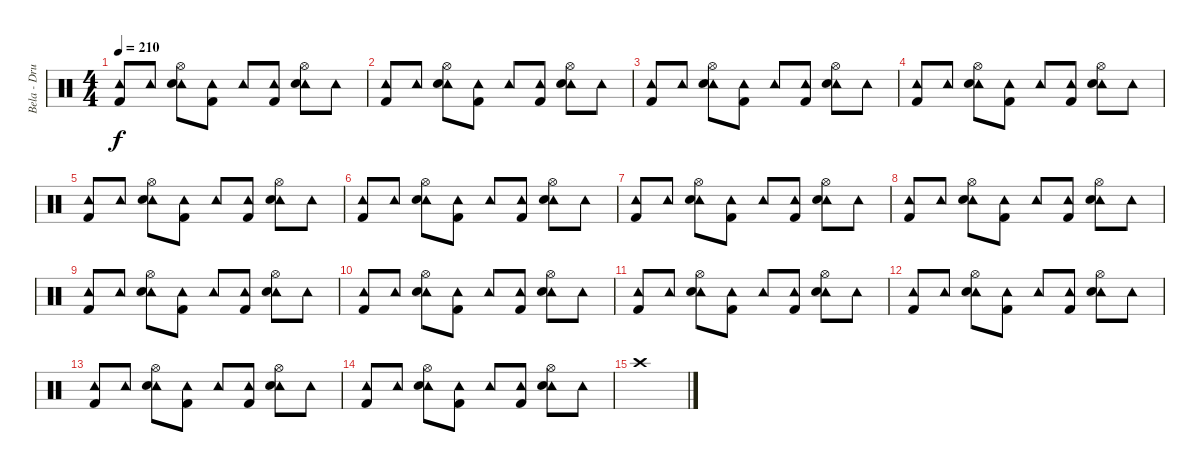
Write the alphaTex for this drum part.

\track ("Bela - Drums" "Bela - Dru") {instrument percussion}
\staff {score}
\articulation defaults
\ts (4 4)
\tempo 210
\clef neutral
\ks c
("Tambourine (hit)" "Kick (hit) 2").8{dy f} "Tambourine (hit)".8 ("Tambourine (hit)" "Electric Snare (hit)" "Hi-Hat (open)").8 ("Tambourine (hit)" "Kick (hit) 2").8 "Tambourine (hit)".8 ("Tambourine (hit)" "Kick (hit) 2").8 ("Tambourine (hit)" "Electric Snare (hit)" "Hi-Hat (open)").8 "Tambourine (hit)".8 |
("Tambourine (hit)" "Kick (hit) 2").8 "Tambourine (hit)".8 ("Tambourine (hit)" "Electric Snare (hit)" "Hi-Hat (open)").8 ("Tambourine (hit)" "Kick (hit) 2").8 "Tambourine (hit)".8 ("Tambourine (hit)" "Kick (hit) 2").8 ("Tambourine (hit)" "Electric Snare (hit)" "Hi-Hat (open)").8 "Tambourine (hit)".8 |
("Tambourine (hit)" "Kick (hit) 2").8 "Tambourine (hit)".8 ("Tambourine (hit)" "Electric Snare (hit)" "Hi-Hat (open)").8 ("Tambourine (hit)" "Kick (hit) 2").8 "Tambourine (hit)".8 ("Tambourine (hit)" "Kick (hit) 2").8 ("Tambourine (hit)" "Electric Snare (hit)" "Hi-Hat (open)").8 "Tambourine (hit)".8 |
("Tambourine (hit)" "Kick (hit) 2").8 "Tambourine (hit)".8 ("Tambourine (hit)" "Electric Snare (hit)" "Hi-Hat (open)").8 ("Tambourine (hit)" "Kick (hit) 2").8 "Tambourine (hit)".8 ("Tambourine (hit)" "Kick (hit) 2").8 ("Tambourine (hit)" "Electric Snare (hit)" "Hi-Hat (open)").8 "Tambourine (hit)".8 |
("Tambourine (hit)" "Kick (hit) 2").8 "Tambourine (hit)".8 ("Tambourine (hit)" "Electric Snare (hit)" "Hi-Hat (open)").8 ("Tambourine (hit)" "Kick (hit) 2").8 "Tambourine (hit)".8 ("Tambourine (hit)" "Kick (hit) 2").8 ("Tambourine (hit)" "Electric Snare (hit)" "Hi-Hat (open)").8 "Tambourine (hit)".8 |
("Tambourine (hit)" "Kick (hit) 2").8 "Tambourine (hit)".8 ("Tambourine (hit)" "Electric Snare (hit)" "Hi-Hat (open)").8 ("Tambourine (hit)" "Kick (hit) 2").8 "Tambourine (hit)".8 ("Tambourine (hit)" "Kick (hit) 2").8 ("Tambourine (hit)" "Electric Snare (hit)" "Hi-Hat (open)").8 "Tambourine (hit)".8 |
("Tambourine (hit)" "Kick (hit) 2").8 "Tambourine (hit)".8 ("Tambourine (hit)" "Electric Snare (hit)" "Hi-Hat (open)").8 ("Tambourine (hit)" "Kick (hit) 2").8 "Tambourine (hit)".8 ("Tambourine (hit)" "Kick (hit) 2").8 ("Tambourine (hit)" "Electric Snare (hit)" "Hi-Hat (open)").8 "Tambourine (hit)".8 |
("Tambourine (hit)" "Kick (hit) 2").8 "Tambourine (hit)".8 ("Tambourine (hit)" "Electric Snare (hit)" "Hi-Hat (open)").8 ("Tambourine (hit)" "Kick (hit) 2").8 "Tambourine (hit)".8 ("Tambourine (hit)" "Kick (hit) 2").8 ("Tambourine (hit)" "Electric Snare (hit)" "Hi-Hat (open)").8 "Tambourine (hit)".8 |
("Tambourine (hit)" "Kick (hit) 2").8 "Tambourine (hit)".8 ("Tambourine (hit)" "Electric Snare (hit)" "Hi-Hat (open)").8 ("Tambourine (hit)" "Kick (hit) 2").8 "Tambourine (hit)".8 ("Tambourine (hit)" "Kick (hit) 2").8 ("Tambourine (hit)" "Electric Snare (hit)" "Hi-Hat (open)").8 "Tambourine (hit)".8 |
("Tambourine (hit)" "Kick (hit) 2").8 "Tambourine (hit)".8 ("Tambourine (hit)" "Electric Snare (hit)" "Hi-Hat (open)").8 ("Tambourine (hit)" "Kick (hit) 2").8 "Tambourine (hit)".8 ("Tambourine (hit)" "Kick (hit) 2").8 ("Tambourine (hit)" "Electric Snare (hit)" "Hi-Hat (open)").8 "Tambourine (hit)".8 |
("Tambourine (hit)" "Kick (hit) 2").8 "Tambourine (hit)".8 ("Tambourine (hit)" "Electric Snare (hit)" "Hi-Hat (open)").8 ("Tambourine (hit)" "Kick (hit) 2").8 "Tambourine (hit)".8 ("Tambourine (hit)" "Kick (hit) 2").8 ("Tambourine (hit)" "Electric Snare (hit)" "Hi-Hat (open)").8 "Tambourine (hit)".8 |
("Tambourine (hit)" "Kick (hit) 2").8 "Tambourine (hit)".8 ("Tambourine (hit)" "Electric Snare (hit)" "Hi-Hat (open)").8 ("Tambourine (hit)" "Kick (hit) 2").8 "Tambourine (hit)".8 ("Tambourine (hit)" "Kick (hit) 2").8 ("Tambourine (hit)" "Electric Snare (hit)" "Hi-Hat (open)").8 "Tambourine (hit)".8 |
("Tambourine (hit)" "Kick (hit) 2").8 "Tambourine (hit)".8 ("Tambourine (hit)" "Electric Snare (hit)" "Hi-Hat (open)").8 ("Tambourine (hit)" "Kick (hit) 2").8 "Tambourine (hit)".8 ("Tambourine (hit)" "Kick (hit) 2").8 ("Tambourine (hit)" "Electric Snare (hit)" "Hi-Hat (open)").8 "Tambourine (hit)".8 |
("Tambourine (hit)" "Kick (hit) 2").8 "Tambourine (hit)".8 ("Tambourine (hit)" "Electric Snare (hit)" "Hi-Hat (open)").8 ("Tambourine (hit)" "Kick (hit) 2").8 "Tambourine (hit)".8 ("Tambourine (hit)" "Kick (hit) 2").8 ("Tambourine (hit)" "Electric Snare (hit)" "Hi-Hat (open)").8 "Tambourine (hit)".8 |
"Crash high (hit)".1
